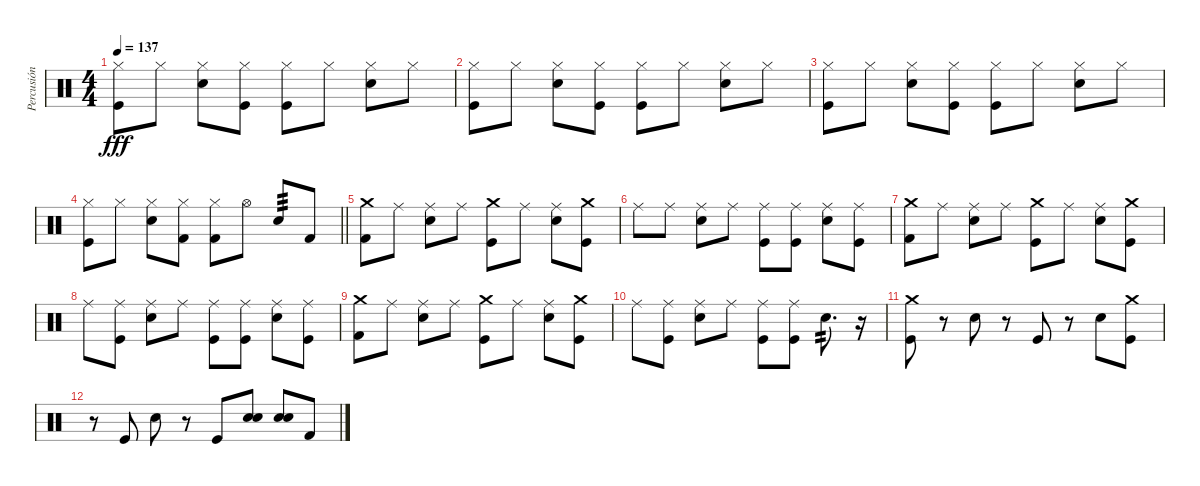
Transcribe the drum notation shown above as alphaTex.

\track ("Percusión" "Percusión") {instrument percussion}
\staff {score}
\articulation defaults
\ts (4 4)
\tempo 137
\clef neutral
\ks c
("Hi-Hat (closed)" "Kick (hit)").8{dy fff} "Hi-Hat (closed)".8 ("Hi-Hat (closed)" "Electric Snare (hit)").8 ("Hi-Hat (closed)" "Kick (hit)").8 ("Hi-Hat (closed)" "Kick (hit)").8 "Hi-Hat (closed)".8 ("Hi-Hat (closed)" "Electric Snare (hit)").8 "Hi-Hat (closed)".8 |
("Hi-Hat (closed)" "Kick (hit)").8 "Hi-Hat (closed)".8 ("Hi-Hat (closed)" "Electric Snare (hit)").8 ("Hi-Hat (closed)" "Kick (hit)").8 ("Hi-Hat (closed)" "Kick (hit)").8 "Hi-Hat (closed)".8 ("Hi-Hat (closed)" "Electric Snare (hit)").8 "Hi-Hat (closed)".8 |
("Hi-Hat (closed)" "Kick (hit)").8 "Hi-Hat (closed)".8 ("Hi-Hat (closed)" "Electric Snare (hit)").8 ("Hi-Hat (closed)" "Kick (hit)").8 ("Hi-Hat (closed)" "Kick (hit)").8 "Hi-Hat (closed)".8 ("Hi-Hat (closed)" "Electric Snare (hit)").8 "Hi-Hat (closed)".8 |
\barLineRight lightlight
("Hi-Hat (closed)" "Kick (hit)").8 "Hi-Hat (closed)".8 ("Hi-Hat (closed)" "Electric Snare (hit)").8 ("Hi-Hat (closed)" "Kick (hit) 2").8 ("Hi-Hat (closed)" "Kick (hit) 2").8 "Hi-Hat (open)".8 "Electric Snare (hit)".8{tp 3} "Kick (hit) 2".8 |
("Crash medium (hit)" "Kick (hit) 2").8 "Ride (middle)".8 ("Ride (middle)" "Electric Snare (hit)").8 "Ride (middle)".8 ("Crash medium (hit)" "Kick (hit)").8 "Ride (middle)".8 ("Ride (middle)" "Electric Snare (hit)").8 ("Crash medium (hit)" "Kick (hit)").8 |
"Ride (middle)".8 "Ride (middle)".8 ("Ride (middle)" "Electric Snare (hit)").8 "Ride (middle)".8 ("Ride (middle)" "Kick (hit)").8 ("Ride (middle)" "Kick (hit)").8 ("Ride (middle)" "Electric Snare (hit)").8 ("Ride (middle)" "Kick (hit)").8 |
("Crash medium (hit)" "Kick (hit) 2").8 "Ride (middle)".8 ("Ride (middle)" "Electric Snare (hit)").8 "Ride (middle)".8 ("Crash medium (hit)" "Kick (hit)").8 "Ride (middle)".8 ("Ride (middle)" "Electric Snare (hit)").8 ("Crash medium (hit)" "Kick (hit)").8 |
"Ride (middle)".8 ("Ride (middle)" "Kick (hit)").8 ("Ride (middle)" "Electric Snare (hit)").8 "Ride (middle)".8 ("Ride (middle)" "Kick (hit)").8 ("Ride (middle)" "Kick (hit)").8 ("Ride (middle)" "Electric Snare (hit)").8 ("Ride (middle)" "Kick (hit)").8 |
("Crash medium (hit)" "Kick (hit) 2").8 "Ride (middle)".8 ("Ride (middle)" "Electric Snare (hit)").8 "Ride (middle)".8 ("Crash medium (hit)" "Kick (hit)").8 "Ride (middle)".8 ("Ride (middle)" "Electric Snare (hit)").8 ("Crash medium (hit)" "Kick (hit)").8 |
"Ride (middle)".8 ("Ride (middle)" "Kick (hit)").8 ("Ride (middle)" "Electric Snare (hit)").8 "Ride (middle)".8 ("Ride (middle)" "Kick (hit)").8 ("Ride (middle)" "Kick (hit)").8 "Electric Snare (hit)".8{d tp 2} r.16 |
("Crash medium (hit)" "Kick (hit)").8 r.8 "Electric Snare (hit)".8 r.8 "Kick (hit)".8 r.8 "Electric Snare (hit)".8 ("Crash medium (hit)" "Kick (hit)").8 |
r.8 "Kick (hit)".8 "Electric Snare (hit)".8 r.8 "Kick (hit)".8 ("Electric Snare (hit)" "Electric Snare (hit)").8 ("Electric Snare (hit)" "Electric Snare (hit)").8 "Kick (hit) 2".8
